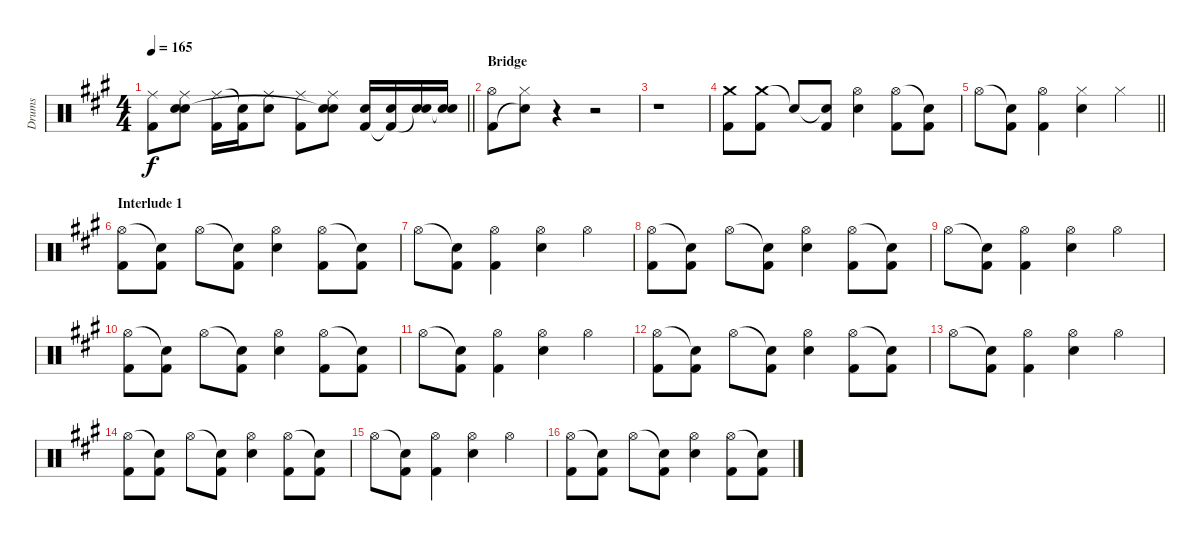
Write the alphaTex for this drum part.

\track ("Drums" "Drums") {instrument percussion}
\staff {score}
\articulation defaults
\ts (4 4)
\tempo 165
\clef neutral
\barLineRight lightlight
\ks f#minor
("Ride (middle)" "Kick (hit) 2").8{dy f} ("Ride (middle)" "Electric Snare (hit)" "Snare (hit)"{t}).8 ("Ride (middle)" "Kick (hit) 2").16 ("Snare (hit)"{t} "Kick (hit) 2").16 ("Ride (middle)" "Electric Snare (hit)").8 ("Ride (middle)" "Kick (hit) 2").8 ("Ride (middle)" "Electric Snare (hit)" "Snare (hit)"{t}).8 ("Electric Snare (hit)" "Kick (hit) 2").16 ("Electric Snare (hit)" "Kick (hit) 2"{t}).16 ("Electric Snare (hit)" "Snare (hit)"{t}).16 ("Electric Snare (hit)" "Snare (hit)"{t}).16 |
\section ("" "Bridge")
("Hi-Hat (open)" "Kick (hit) 2").8 ("Hi-Hat (closed)" "Snare (hit)"{t}).8 r.4 r.2 |
r.1 |
("Crash medium (hit)" "Kick (hit) 2").8 ("Crash medium (hit)" "Kick (hit) 2").8 "Snare (hit)"{t}.8 ("Snare (hit)"{t} "Kick (hit) 2").8 ("Hi-Hat (open)" "Electric Snare (hit)").4 ("Hi-Hat (open)" "Kick (hit) 2").8 ("Snare (hit)"{t} "Kick (hit) 2").8 |
\barLineRight lightlight "Hi-Hat (open)".8
("Snare (hit)"{t} "Kick (hit) 2").8 ("Hi-Hat (open)" "Kick (hit) 2").4 ("Hi-Hat (closed)" "Electric Snare (hit)").4 "Hi-Hat (closed)".4 |
\section ("" "Interlude 1")
("Hi-Hat (open)" "Kick (hit) 2").8 ("Snare (hit)"{t} "Kick (hit) 2").8 "Hi-Hat (open)".8 ("Snare (hit)"{t} "Kick (hit) 2").8 ("Hi-Hat (open)" "Electric Snare (hit)").4 ("Hi-Hat (open)" "Kick (hit) 2").8 ("Snare (hit)"{t} "Kick (hit) 2").8 |
"Hi-Hat (open)".8 ("Snare (hit)"{t} "Kick (hit) 2").8 ("Hi-Hat (open)" "Kick (hit) 2").4 ("Hi-Hat (open)" "Electric Snare (hit)").4 "Hi-Hat (open)".4 |
("Hi-Hat (open)" "Kick (hit) 2").8 ("Snare (hit)"{t} "Kick (hit) 2").8 "Hi-Hat (open)".8 ("Snare (hit)"{t} "Kick (hit) 2").8 ("Hi-Hat (open)" "Electric Snare (hit)").4 ("Hi-Hat (open)" "Kick (hit) 2").8 ("Snare (hit)"{t} "Kick (hit) 2").8 |
"Hi-Hat (open)".8 ("Snare (hit)"{t} "Kick (hit) 2").8 ("Hi-Hat (open)" "Kick (hit) 2").4 ("Hi-Hat (open)" "Electric Snare (hit)").4 "Hi-Hat (open)".4 |
("Hi-Hat (open)" "Kick (hit) 2").8 ("Snare (hit)"{t} "Kick (hit) 2").8 "Hi-Hat (open)".8 ("Snare (hit)"{t} "Kick (hit) 2").8 ("Hi-Hat (open)" "Electric Snare (hit)").4 ("Hi-Hat (open)" "Kick (hit) 2").8 ("Snare (hit)"{t} "Kick (hit) 2").8 |
"Hi-Hat (open)".8 ("Snare (hit)"{t} "Kick (hit) 2").8 ("Hi-Hat (open)" "Kick (hit) 2").4 ("Hi-Hat (open)" "Electric Snare (hit)").4 "Hi-Hat (open)".4 |
("Hi-Hat (open)" "Kick (hit) 2").8 ("Snare (hit)"{t} "Kick (hit) 2").8 "Hi-Hat (open)".8 ("Snare (hit)"{t} "Kick (hit) 2").8 ("Hi-Hat (open)" "Electric Snare (hit)").4 ("Hi-Hat (open)" "Kick (hit) 2").8 ("Snare (hit)"{t} "Kick (hit) 2").8 |
"Hi-Hat (open)".8 ("Snare (hit)"{t} "Kick (hit) 2").8 ("Hi-Hat (open)" "Kick (hit) 2").4 ("Hi-Hat (open)" "Electric Snare (hit)").4 "Hi-Hat (open)".4 |
("Hi-Hat (open)" "Kick (hit) 2").8 ("Snare (hit)"{t} "Kick (hit) 2").8 "Hi-Hat (open)".8 ("Snare (hit)"{t} "Kick (hit) 2").8 ("Hi-Hat (open)" "Electric Snare (hit)").4 ("Hi-Hat (open)" "Kick (hit) 2").8 ("Snare (hit)"{t} "Kick (hit) 2").8 |
"Hi-Hat (open)".8 ("Snare (hit)"{t} "Kick (hit) 2").8 ("Hi-Hat (open)" "Kick (hit) 2").4 ("Hi-Hat (open)" "Electric Snare (hit)").4 "Hi-Hat (open)".4 |
("Hi-Hat (open)" "Kick (hit) 2").8 ("Snare (hit)"{t} "Kick (hit) 2").8 "Hi-Hat (open)".8 ("Snare (hit)"{t} "Kick (hit) 2").8 ("Hi-Hat (open)" "Electric Snare (hit)").4 ("Hi-Hat (open)" "Kick (hit) 2").8 ("Snare (hit)"{t} "Kick (hit) 2").8
